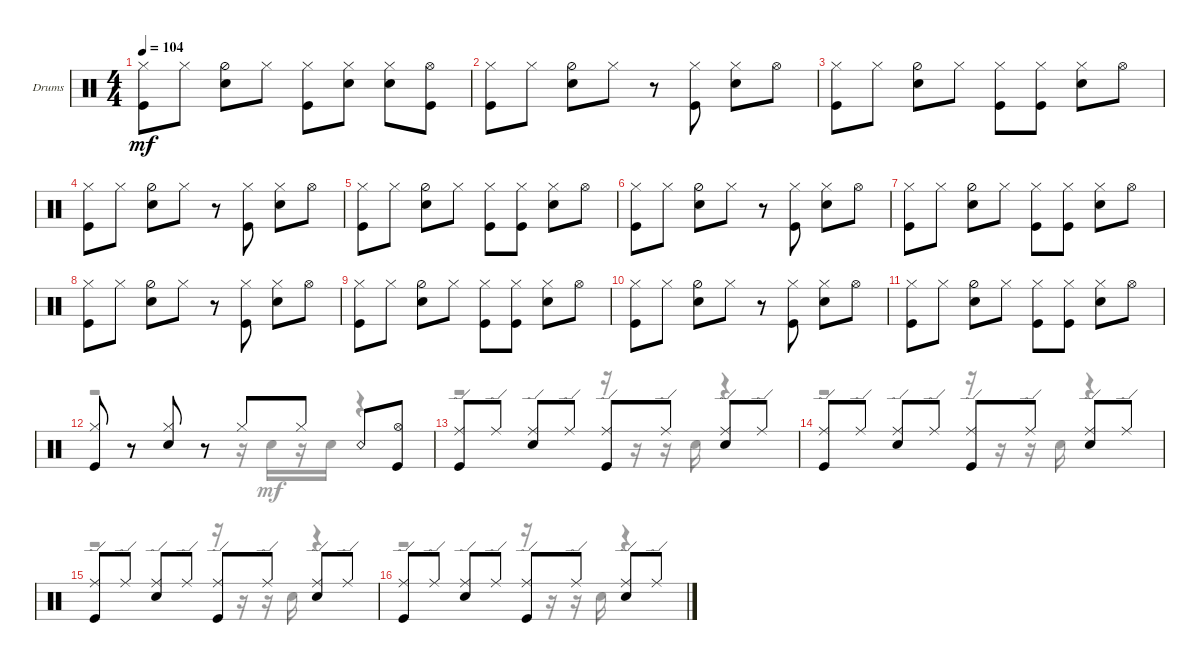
\defaultSystemsLayout 4
\bracketExtendMode groupsimilarinstruments
\firstSystemTrackNameOrientation horizontal
\otherSystemsTrackNameOrientation horizontal
\track ("Drumkit" "Drums") {instrument percussion}
\staff {score}
\articulation defaults
\voice
\ts (4 4)
\tempo 104
\clef neutral
\ks c
("Hi-Hat (closed)" "Kick (hit)").8{dy mf} "Hi-Hat (closed)".8 ("Hi-Hat (half)" "Snare (hit) 2").8 "Hi-Hat (closed)".8 ("Hi-Hat (closed)" "Kick (hit)").8 ("Hi-Hat (closed)" "Snare (hit) 2").8 ("Hi-Hat (closed)" "Snare (hit) 2").8 ("Hi-Hat (open)" "Kick (hit)").8 |
("Hi-Hat (closed)" "Kick (hit)").8 "Hi-Hat (closed)".8 ("Hi-Hat (half)" "Snare (hit) 2").8 "Hi-Hat (closed)".8 r.8 ("Hi-Hat (closed)" "Kick (hit)").8 ("Hi-Hat (closed)" "Snare (hit) 2").8 "Hi-Hat (open)".8 |
("Hi-Hat (closed)" "Kick (hit)").8 "Hi-Hat (closed)".8 ("Hi-Hat (half)" "Snare (hit) 2").8 "Hi-Hat (closed)".8 ("Hi-Hat (closed)" "Kick (hit)").8 ("Hi-Hat (closed)" "Kick (hit)").8 ("Hi-Hat (closed)" "Snare (hit) 2").8 "Hi-Hat (open)".8 |
("Hi-Hat (closed)" "Kick (hit)").8 "Hi-Hat (closed)".8 ("Hi-Hat (half)" "Snare (hit) 2").8 "Hi-Hat (closed)".8 r.8 ("Hi-Hat (closed)" "Kick (hit)").8 ("Hi-Hat (closed)" "Snare (hit) 2").8 "Hi-Hat (open)".8 |
("Hi-Hat (closed)" "Kick (hit)").8 "Hi-Hat (closed)".8 ("Hi-Hat (half)" "Snare (hit) 2").8 "Hi-Hat (closed)".8 ("Hi-Hat (closed)" "Kick (hit)").8 ("Hi-Hat (closed)" "Kick (hit)").8 ("Hi-Hat (closed)" "Snare (hit) 2").8 "Hi-Hat (open)".8 |
("Hi-Hat (closed)" "Kick (hit)").8 "Hi-Hat (closed)".8 ("Hi-Hat (half)" "Snare (hit) 2").8 "Hi-Hat (closed)".8 r.8 ("Hi-Hat (closed)" "Kick (hit)").8 ("Hi-Hat (closed)" "Snare (hit) 2").8 "Hi-Hat (open)".8 |
("Hi-Hat (closed)" "Kick (hit)").8 "Hi-Hat (closed)".8 ("Hi-Hat (half)" "Snare (hit) 2").8 "Hi-Hat (closed)".8 ("Hi-Hat (closed)" "Kick (hit)").8 ("Hi-Hat (closed)" "Kick (hit)").8 ("Hi-Hat (closed)" "Snare (hit) 2").8 "Hi-Hat (open)".8 |
("Hi-Hat (closed)" "Kick (hit)").8 "Hi-Hat (closed)".8 ("Hi-Hat (half)" "Snare (hit) 2").8 "Hi-Hat (closed)".8 r.8 ("Hi-Hat (closed)" "Kick (hit)").8 ("Hi-Hat (closed)" "Snare (hit) 2").8 "Hi-Hat (open)".8 |
("Hi-Hat (closed)" "Kick (hit)").8 "Hi-Hat (closed)".8 ("Hi-Hat (half)" "Snare (hit) 2").8 "Hi-Hat (closed)".8 ("Hi-Hat (closed)" "Kick (hit)").8 ("Hi-Hat (closed)" "Kick (hit)").8 ("Hi-Hat (closed)" "Snare (hit) 2").8 "Hi-Hat (open)".8 |
("Hi-Hat (closed)" "Kick (hit)").8 "Hi-Hat (closed)".8 ("Hi-Hat (half)" "Snare (hit) 2").8 "Hi-Hat (closed)".8 r.8 ("Hi-Hat (closed)" "Kick (hit)").8 ("Hi-Hat (closed)" "Snare (hit) 2").8 "Hi-Hat (open)".8 |
("Hi-Hat (closed)" "Kick (hit)").8 "Hi-Hat (closed)".8 ("Hi-Hat (half)" "Snare (hit) 2").8 "Hi-Hat (closed)".8 ("Hi-Hat (closed)" "Kick (hit)").8 ("Hi-Hat (closed)" "Kick (hit)").8 ("Hi-Hat (closed)" "Snare (hit) 2").8 "Hi-Hat (open)".8 |
("Hi-Hat (closed)" "Kick (hit)").8 r.8 ("Snare (hit) 2" "Hi-Hat (closed)").8 r.8 "Hi-Hat (closed)".8 "Hi-Hat (closed)".8 "Snare (rim shot)".8 ("Hi-Hat (open)" "Kick (hit)").8 |
("Kick (hit)" "Ride (edge)").8 "Ride (edge)".8 ("Snare (hit) 2" "Ride (edge)").8 "Ride (edge)".8 ("Kick (hit)" "Ride (edge)").8 "Ride (edge)".8 ("Snare (hit) 2" "Ride (edge)").8 "Ride (edge)".8 |
("Kick (hit)" "Ride (edge)").8 "Ride (edge)".8 ("Snare (hit) 2" "Ride (edge)").8 "Ride (edge)".8 ("Kick (hit)" "Ride (edge)").8 "Ride (edge)".8 ("Snare (hit) 2" "Ride (edge)").8 "Ride (edge)".8 |
("Kick (hit)" "Ride (edge)").8 "Ride (edge)".8 ("Snare (hit) 2" "Ride (edge)").8 "Ride (edge)".8 ("Kick (hit)" "Ride (edge)").8 "Ride (edge)".8 ("Snare (hit) 2" "Ride (edge)").8 "Ride (edge)".8 |
("Kick (hit)" "Ride (edge)").8 "Ride (edge)".8 ("Snare (hit) 2" "Ride (edge)").8 "Ride (edge)".8 ("Kick (hit)" "Ride (edge)").8 "Ride (edge)".8 ("Snare (hit) 2" "Ride (edge)").8 "Ride (edge)".8
\voice
\clef neutral
\ottava regular
\simile none
\ks c
|
|
|
|
|
|
|
|
|
|
|
r.2 r.16 "Snare (hit) 2".16 r.16 "Snare (hit) 2".16 r.4 |
r.2 r.16 r.16 r.16 "Snare (hit) 2".16 r.4 |
r.2 r.16 r.16 r.16 "Snare (hit) 2".16 r.4 |
r.2 r.16 r.16 r.16 "Snare (hit) 2".16 r.4 |
r.2 r.16 r.16 r.16 "Snare (hit) 2".16 r.4
